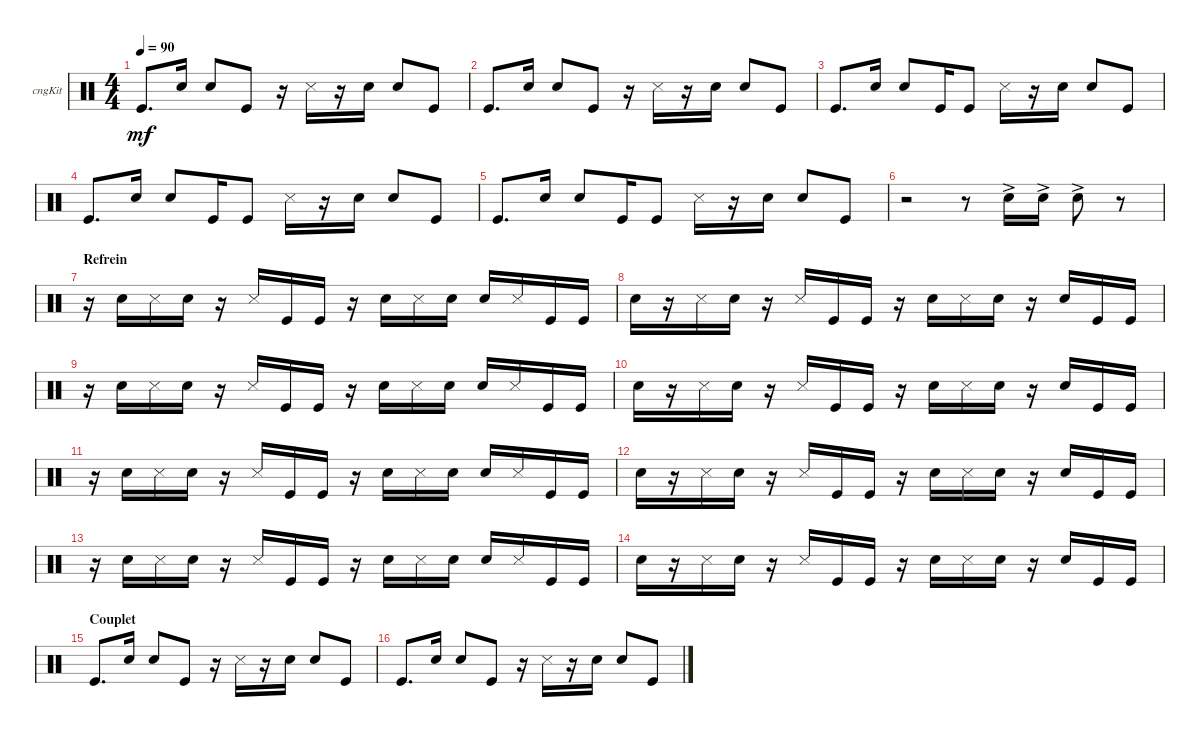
\defaultSystemsLayout 4
\bracketExtendMode groupsimilarinstruments
\firstSystemTrackNameOrientation horizontal
\otherSystemsTrackNameOrientation horizontal
\track ("Congas" "cngKit") {instrument percussion}
\staff {score}
\articulation defaults
\ts (4 4)
\tempo 90
\clef neutral
\scale
0.333333
\ks c "Kick (hit)".8{d dy mf} "Snare (hit) 2".16 "Snare (hit) 2".8 "Kick (hit)".8
r.16 "Snare (side stick) 3".16 r.16 "Snare (hit) 2".16 "Snare (hit) 2".8 "Kick (hit)".8 |
\scale
0.333333 "Kick (hit)".8{d} "Snare (hit) 2".16 "Snare (hit) 2".8 "Kick (hit)".8 r.16 "Snare (side stick) 3".16 r.16 "Snare (hit) 2".16 "Snare (hit) 2".8 "Kick (hit)".8 |
\scale
0.333333 "Kick (hit)".8{d} "Snare (hit) 2".16 "Snare (hit) 2".8 "Kick (hit)".16 "Kick (hit)".8 "Snare (side stick) 3".16 r.16 "Snare (hit) 2".16 "Snare (hit) 2".8 "Kick (hit)".8 |
\scale
0.333333 "Kick (hit)".8{d} "Snare (hit) 2".16 "Snare (hit) 2".8 "Kick (hit)".16 "Kick (hit)".8 "Snare (side stick) 3".16 r.16 "Snare (hit) 2".16 "Snare (hit) 2".8 "Kick (hit)".8 |
\scale
0.333333 "Kick (hit)".8{d} "Snare (hit) 2".16 "Snare (hit) 2".8 "Kick (hit)".16 "Kick (hit)".8 "Snare (side stick) 3".16 r.16 "Snare (hit) 2".16 "Snare (hit) 2".8 "Kick (hit)".8 |
\scale
0.333333 r.2 r.8 "Snare (hit) 2"{ac}.16 "Snare (hit) 2"{ac}.16 "Snare (hit) 2"{ac}.8 r.8 |
\section ("" "Refrein")
\scale
0.333333 r.16 "Snare (hit) 2".16 "Snare (side stick) 3".16 "Snare (hit) 2".16 r.16 "Snare (side stick) 3".16 "Kick (hit)".16 "Kick (hit)".16 r.16 "Snare (hit) 2".16 "Snare (side stick) 3".16 "Snare (hit) 2".16 "Snare (hit) 2".16 "Snare (side stick) 3".16 "Kick (hit)".16 "Kick (hit)".16 |
\scale
0.333333 "Snare (hit) 2".16 r.16 "Snare (side stick) 3".16 "Snare (hit) 2".16 r.16 "Snare (side stick) 3".16 "Kick (hit)".16 "Kick (hit)".16 r.16 "Snare (hit) 2".16 "Snare (side stick) 3".16 "Snare (hit) 2".16 r.16 "Snare (hit) 2".16 "Kick (hit)".16 "Kick (hit)".16 |
\scale
0.333333 r.16 "Snare (hit) 2".16 "Snare (side stick) 3".16 "Snare (hit) 2".16 r.16 "Snare (side stick) 3".16 "Kick (hit)".16 "Kick (hit)".16 r.16 "Snare (hit) 2".16 "Snare (side stick) 3".16 "Snare (hit) 2".16 "Snare (hit) 2".16 "Snare (side stick) 3".16 "Kick (hit)".16 "Kick (hit)".16 |
\scale
0.333333 "Snare (hit) 2".16 r.16 "Snare (side stick) 3".16 "Snare (hit) 2".16 r.16 "Snare (side stick) 3".16 "Kick (hit)".16 "Kick (hit)".16 r.16 "Snare (hit) 2".16 "Snare (side stick) 3".16 "Snare (hit) 2".16 r.16 "Snare (hit) 2".16 "Kick (hit)".16 "Kick (hit)".16 |
\scale
0.333333 r.16 "Snare (hit) 2".16 "Snare (side stick) 3".16 "Snare (hit) 2".16 r.16 "Snare (side stick) 3".16 "Kick (hit)".16 "Kick (hit)".16 r.16 "Snare (hit) 2".16 "Snare (side stick) 3".16 "Snare (hit) 2".16 "Snare (hit) 2".16 "Snare (side stick) 3".16 "Kick (hit)".16 "Kick (hit)".16 |
\scale
0.333333 "Snare (hit) 2".16 r.16 "Snare (side stick) 3".16 "Snare (hit) 2".16 r.16 "Snare (side stick) 3".16 "Kick (hit)".16 "Kick (hit)".16 r.16 "Snare (hit) 2".16 "Snare (side stick) 3".16 "Snare (hit) 2".16 r.16 "Snare (hit) 2".16 "Kick (hit)".16 "Kick (hit)".16 |
\scale
0.333333 r.16 "Snare (hit) 2".16 "Snare (side stick) 3".16 "Snare (hit) 2".16 r.16 "Snare (side stick) 3".16 "Kick (hit)".16 "Kick (hit)".16 r.16 "Snare (hit) 2".16 "Snare (side stick) 3".16 "Snare (hit) 2".16 "Snare (hit) 2".16 "Snare (side stick) 3".16 "Kick (hit)".16 "Kick (hit)".16 |
\scale
0.333333 "Snare (hit) 2".16 r.16 "Snare (side stick) 3".16 "Snare (hit) 2".16 r.16 "Snare (side stick) 3".16 "Kick (hit)".16 "Kick (hit)".16 r.16 "Snare (hit) 2".16 "Snare (side stick) 3".16 "Snare (hit) 2".16 r.16 "Snare (hit) 2".16 "Kick (hit)".16 "Kick (hit)".16 |
\section ("" "Couplet")
\scale
0.333333 "Kick (hit)".8{d} "Snare (hit) 2".16 "Snare (hit) 2".8 "Kick (hit)".8 r.16 "Snare (side stick) 3".16 r.16 "Snare (hit) 2".16 "Snare (hit) 2".8 "Kick (hit)".8 |
\scale
0.333333 "Kick (hit)".8{d} "Snare (hit) 2".16 "Snare (hit) 2".8 "Kick (hit)".8 r.16 "Snare (side stick) 3".16 r.16 "Snare (hit) 2".16 "Snare (hit) 2".8 "Kick (hit)".8
